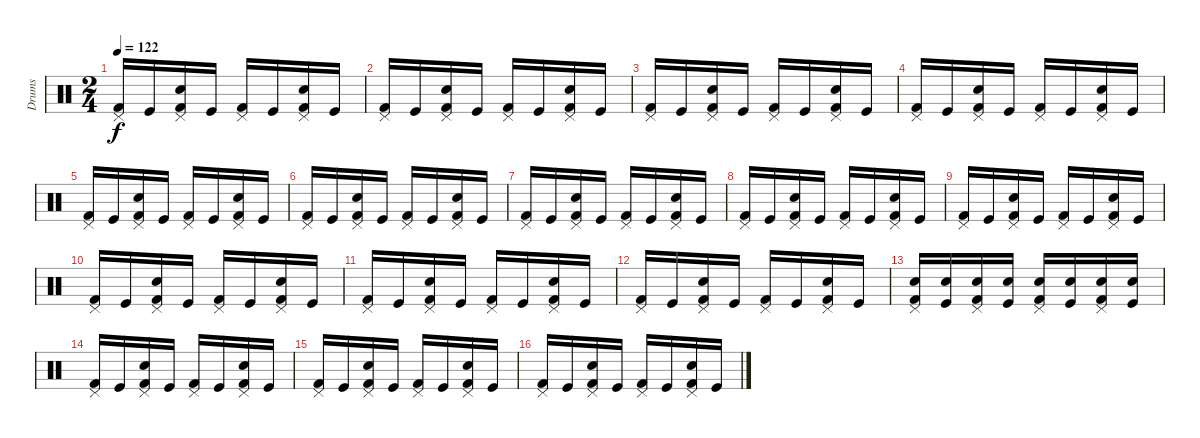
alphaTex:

\track ("Drums" "Drums") {instrument percussion}
\staff {score}
\articulation defaults
\ts (2 4)
\tempo 122
\clef neutral
\ks c
("Pedal Hi-Hat (hit)" "Kick (hit) 2").16{dy f} "Kick (hit)".16 ("Pedal Hi-Hat (hit)" "Snare (hit) 2" "Kick (hit) 2").16 "Kick (hit)".16 ("Pedal Hi-Hat (hit)" "Kick (hit) 2").16 "Kick (hit)".16 ("Pedal Hi-Hat (hit)" "Snare (hit) 2" "Kick (hit) 2").16 "Kick (hit)".16 |
("Pedal Hi-Hat (hit)" "Kick (hit) 2").16 "Kick (hit)".16 ("Pedal Hi-Hat (hit)" "Snare (hit) 2" "Kick (hit) 2").16 "Kick (hit)".16 ("Pedal Hi-Hat (hit)" "Kick (hit) 2").16 "Kick (hit)".16 ("Pedal Hi-Hat (hit)" "Snare (hit) 2" "Kick (hit) 2").16 "Kick (hit)".16 |
("Pedal Hi-Hat (hit)" "Kick (hit) 2").16 "Kick (hit)".16 ("Pedal Hi-Hat (hit)" "Snare (hit) 2" "Kick (hit) 2").16 "Kick (hit)".16 ("Pedal Hi-Hat (hit)" "Kick (hit) 2").16 "Kick (hit)".16 ("Pedal Hi-Hat (hit)" "Snare (hit) 2" "Kick (hit) 2").16 "Kick (hit)".16 |
("Pedal Hi-Hat (hit)" "Kick (hit) 2").16 "Kick (hit)".16 ("Pedal Hi-Hat (hit)" "Snare (hit) 2" "Kick (hit) 2").16 "Kick (hit)".16 ("Pedal Hi-Hat (hit)" "Kick (hit) 2").16 "Kick (hit)".16 ("Pedal Hi-Hat (hit)" "Snare (hit) 2" "Kick (hit) 2").16 "Kick (hit)".16 |
("Pedal Hi-Hat (hit)" "Kick (hit) 2").16 "Kick (hit)".16 ("Pedal Hi-Hat (hit)" "Snare (hit) 2" "Kick (hit) 2").16 "Kick (hit)".16 ("Pedal Hi-Hat (hit)" "Kick (hit) 2").16 "Kick (hit)".16 ("Pedal Hi-Hat (hit)" "Snare (hit) 2" "Kick (hit) 2").16 "Kick (hit)".16 |
("Pedal Hi-Hat (hit)" "Kick (hit) 2").16 "Kick (hit)".16 ("Pedal Hi-Hat (hit)" "Snare (hit) 2" "Kick (hit) 2").16 "Kick (hit)".16 ("Pedal Hi-Hat (hit)" "Kick (hit) 2").16 "Kick (hit)".16 ("Pedal Hi-Hat (hit)" "Snare (hit) 2" "Kick (hit) 2").16 "Kick (hit)".16 |
("Pedal Hi-Hat (hit)" "Kick (hit) 2").16 "Kick (hit)".16 ("Pedal Hi-Hat (hit)" "Snare (hit) 2" "Kick (hit) 2").16 "Kick (hit)".16 ("Pedal Hi-Hat (hit)" "Kick (hit) 2").16 "Kick (hit)".16 ("Pedal Hi-Hat (hit)" "Snare (hit) 2" "Kick (hit) 2").16 "Kick (hit)".16 |
("Pedal Hi-Hat (hit)" "Kick (hit) 2").16 "Kick (hit)".16 ("Pedal Hi-Hat (hit)" "Snare (hit) 2" "Kick (hit) 2").16 "Kick (hit)".16 ("Pedal Hi-Hat (hit)" "Kick (hit) 2").16 "Kick (hit)".16 ("Pedal Hi-Hat (hit)" "Snare (hit) 2" "Kick (hit) 2").16 "Kick (hit)".16 |
("Pedal Hi-Hat (hit)" "Kick (hit) 2").16 "Kick (hit)".16 ("Pedal Hi-Hat (hit)" "Snare (hit) 2" "Kick (hit) 2").16 "Kick (hit)".16 ("Pedal Hi-Hat (hit)" "Kick (hit) 2").16 "Kick (hit)".16 ("Pedal Hi-Hat (hit)" "Snare (hit) 2" "Kick (hit) 2").16 "Kick (hit)".16 |
("Pedal Hi-Hat (hit)" "Kick (hit) 2").16 "Kick (hit)".16 ("Pedal Hi-Hat (hit)" "Snare (hit) 2" "Kick (hit) 2").16 "Kick (hit)".16 ("Pedal Hi-Hat (hit)" "Kick (hit) 2").16 "Kick (hit)".16 ("Pedal Hi-Hat (hit)" "Snare (hit) 2" "Kick (hit) 2").16 "Kick (hit)".16 |
("Pedal Hi-Hat (hit)" "Kick (hit) 2").16 "Kick (hit)".16 ("Pedal Hi-Hat (hit)" "Snare (hit) 2" "Kick (hit) 2").16 "Kick (hit)".16 ("Pedal Hi-Hat (hit)" "Kick (hit) 2").16 "Kick (hit)".16 ("Pedal Hi-Hat (hit)" "Snare (hit) 2" "Kick (hit) 2").16 "Kick (hit)".16 |
("Pedal Hi-Hat (hit)" "Kick (hit) 2").16 "Kick (hit)".16 ("Pedal Hi-Hat (hit)" "Snare (hit) 2" "Kick (hit) 2").16 "Kick (hit)".16 ("Pedal Hi-Hat (hit)" "Kick (hit) 2").16 "Kick (hit)".16 ("Pedal Hi-Hat (hit)" "Snare (hit) 2" "Kick (hit) 2").16 "Kick (hit)".16 |
("Pedal Hi-Hat (hit)" "Snare (hit) 2" "Kick (hit) 2").16 ("Snare (hit) 2" "Kick (hit)").16 ("Pedal Hi-Hat (hit)" "Snare (hit) 2" "Kick (hit) 2").16 ("Snare (hit) 2" "Kick (hit)").16 ("Pedal Hi-Hat (hit)" "Snare (hit) 2" "Kick (hit) 2").16 ("Snare (hit) 2" "Kick (hit)").16 ("Pedal Hi-Hat (hit)" "Snare (hit) 2" "Kick (hit) 2").16 ("Snare (hit) 2" "Kick (hit)").16 |
("Pedal Hi-Hat (hit)" "Kick (hit) 2").16 "Kick (hit)".16 ("Pedal Hi-Hat (hit)" "Snare (hit) 2" "Kick (hit) 2").16 "Kick (hit)".16 ("Pedal Hi-Hat (hit)" "Kick (hit) 2").16 "Kick (hit)".16 ("Pedal Hi-Hat (hit)" "Snare (hit) 2" "Kick (hit) 2").16 "Kick (hit)".16 |
("Pedal Hi-Hat (hit)" "Kick (hit) 2").16 "Kick (hit)".16 ("Pedal Hi-Hat (hit)" "Snare (hit) 2" "Kick (hit) 2").16 "Kick (hit)".16 ("Pedal Hi-Hat (hit)" "Kick (hit) 2").16 "Kick (hit)".16 ("Pedal Hi-Hat (hit)" "Snare (hit) 2" "Kick (hit) 2").16 "Kick (hit)".16 |
("Pedal Hi-Hat (hit)" "Kick (hit) 2").16 "Kick (hit)".16 ("Pedal Hi-Hat (hit)" "Snare (hit) 2" "Kick (hit) 2").16 "Kick (hit)".16 ("Pedal Hi-Hat (hit)" "Kick (hit) 2").16 "Kick (hit)".16 ("Pedal Hi-Hat (hit)" "Snare (hit) 2" "Kick (hit) 2").16 "Kick (hit)".16
